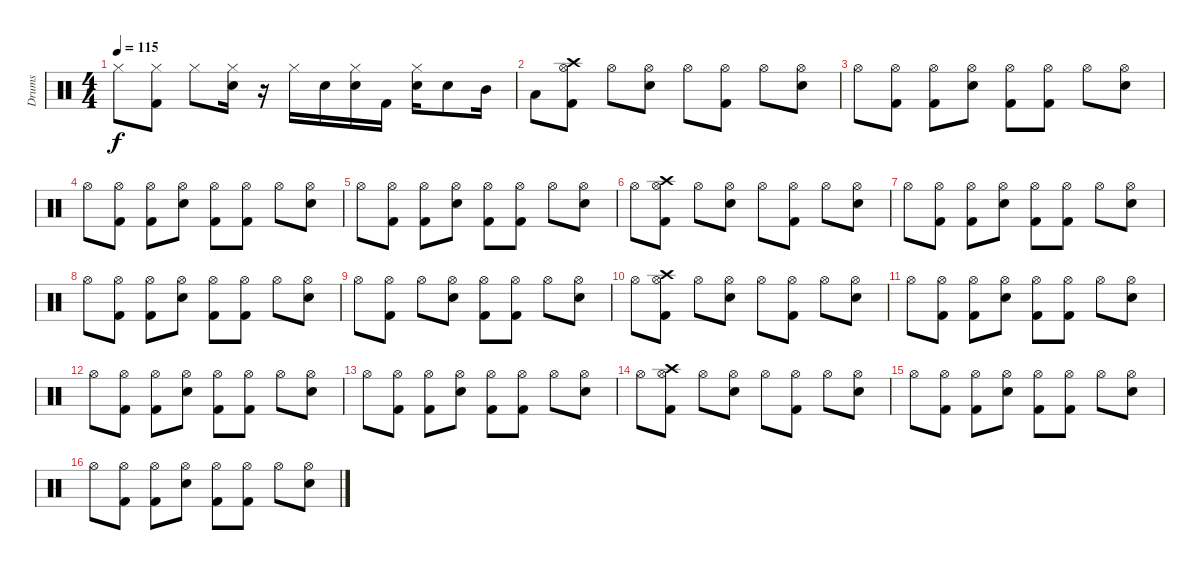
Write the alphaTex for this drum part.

\track ("Drums" "Drums") {instrument percussion}
\staff {score}
\articulation defaults
\ts (4 4)
\tempo 115
\clef neutral
\ks c "Hi-Hat (closed)".8{dy f}
("Kick (hit) 2" "Hi-Hat (closed)").8 "Hi-Hat (closed)".8 ("Snare (hit) 2" "Hi-Hat (closed)").16 r.16 "Hi-Hat (closed)".16 "Snare (hit) 2".16 ("Snare (hit) 2" "Hi-Hat (closed)").16 "Kick (hit) 2".16 ("Snare (hit) 2" "Hi-Hat (closed)").16 "Snare (hit) 2".8 "Mid Tom (hit)".16 |
"Low Tom (hit)".8 ("Kick (hit) 2" "Hi-Hat (open)" "Crash high (hit)").8 "Hi-Hat (open)".8 ("Snare (hit) 2" "Hi-Hat (open)").8 "Hi-Hat (open)".8 ("Kick (hit) 2" "Hi-Hat (open)").8 "Hi-Hat (open)".8 ("Snare (hit) 2" "Hi-Hat (open)").8 |
"Hi-Hat (open)".8 ("Kick (hit) 2" "Hi-Hat (open)").8 ("Kick (hit) 2" "Hi-Hat (open)").8 ("Snare (hit) 2" "Hi-Hat (open)").8 ("Kick (hit) 2" "Hi-Hat (open)").8 ("Kick (hit) 2" "Hi-Hat (open)").8 "Hi-Hat (open)".8 ("Snare (hit) 2" "Hi-Hat (open)").8 |
"Hi-Hat (open)".8 ("Kick (hit) 2" "Hi-Hat (open)").8 ("Kick (hit) 2" "Hi-Hat (open)").8 ("Snare (hit) 2" "Hi-Hat (open)").8 ("Kick (hit) 2" "Hi-Hat (open)").8 ("Kick (hit) 2" "Hi-Hat (open)").8 "Hi-Hat (open)".8 ("Snare (hit) 2" "Hi-Hat (open)").8 |
"Hi-Hat (open)".8 ("Kick (hit) 2" "Hi-Hat (open)").8 ("Kick (hit) 2" "Hi-Hat (open)").8 ("Snare (hit) 2" "Hi-Hat (open)").8 ("Kick (hit) 2" "Hi-Hat (open)").8 ("Kick (hit) 2" "Hi-Hat (open)").8 "Hi-Hat (open)".8 ("Snare (hit) 2" "Hi-Hat (open)").8 |
"Hi-Hat (open)".8 ("Kick (hit) 2" "Hi-Hat (open)" "Crash high (hit)").8 "Hi-Hat (open)".8 ("Snare (hit) 2" "Hi-Hat (open)").8 "Hi-Hat (open)".8 ("Kick (hit) 2" "Hi-Hat (open)").8 "Hi-Hat (open)".8 ("Snare (hit) 2" "Hi-Hat (open)").8 |
"Hi-Hat (open)".8 ("Kick (hit) 2" "Hi-Hat (open)").8 ("Kick (hit) 2" "Hi-Hat (open)").8 ("Snare (hit) 2" "Hi-Hat (open)").8 ("Kick (hit) 2" "Hi-Hat (open)").8 ("Kick (hit) 2" "Hi-Hat (open)").8 "Hi-Hat (open)".8 ("Snare (hit) 2" "Hi-Hat (open)").8 |
"Hi-Hat (open)".8 ("Kick (hit) 2" "Hi-Hat (open)").8 ("Kick (hit) 2" "Hi-Hat (open)").8 ("Snare (hit) 2" "Hi-Hat (open)").8 ("Kick (hit) 2" "Hi-Hat (open)").8 ("Kick (hit) 2" "Hi-Hat (open)").8 "Hi-Hat (open)".8 ("Snare (hit) 2" "Hi-Hat (open)").8 |
"Hi-Hat (open)".8 ("Kick (hit) 2" "Hi-Hat (open)").8 "Hi-Hat (open)".8 ("Snare (hit) 2" "Hi-Hat (open)").8 ("Kick (hit) 2" "Hi-Hat (open)").8 ("Kick (hit) 2" "Hi-Hat (open)").8 "Hi-Hat (open)".8 ("Snare (hit) 2" "Hi-Hat (open)").8 |
"Hi-Hat (open)".8 ("Kick (hit) 2" "Hi-Hat (open)" "Crash high (hit)").8 "Hi-Hat (open)".8 ("Snare (hit) 2" "Hi-Hat (open)").8 "Hi-Hat (open)".8 ("Kick (hit) 2" "Hi-Hat (open)").8 "Hi-Hat (open)".8 ("Snare (hit) 2" "Hi-Hat (open)").8 |
"Hi-Hat (open)".8 ("Kick (hit) 2" "Hi-Hat (open)").8 ("Kick (hit) 2" "Hi-Hat (open)").8 ("Snare (hit) 2" "Hi-Hat (open)").8 ("Kick (hit) 2" "Hi-Hat (open)").8 ("Kick (hit) 2" "Hi-Hat (open)").8 "Hi-Hat (open)".8 ("Snare (hit) 2" "Hi-Hat (open)").8 |
"Hi-Hat (open)".8 ("Kick (hit) 2" "Hi-Hat (open)").8 ("Kick (hit) 2" "Hi-Hat (open)").8 ("Snare (hit) 2" "Hi-Hat (open)").8 ("Kick (hit) 2" "Hi-Hat (open)").8 ("Kick (hit) 2" "Hi-Hat (open)").8 "Hi-Hat (open)".8 ("Snare (hit) 2" "Hi-Hat (open)").8 |
"Hi-Hat (open)".8 ("Kick (hit) 2" "Hi-Hat (open)").8 ("Kick (hit) 2" "Hi-Hat (open)").8 ("Snare (hit) 2" "Hi-Hat (open)").8 ("Kick (hit) 2" "Hi-Hat (open)").8 ("Kick (hit) 2" "Hi-Hat (open)").8 "Hi-Hat (open)".8 ("Snare (hit) 2" "Hi-Hat (open)").8 |
"Hi-Hat (open)".8 ("Kick (hit) 2" "Hi-Hat (open)" "Crash high (hit)").8 "Hi-Hat (open)".8 ("Snare (hit) 2" "Hi-Hat (open)").8 "Hi-Hat (open)".8 ("Kick (hit) 2" "Hi-Hat (open)").8 "Hi-Hat (open)".8 ("Snare (hit) 2" "Hi-Hat (open)").8 |
"Hi-Hat (open)".8 ("Kick (hit) 2" "Hi-Hat (open)").8 ("Kick (hit) 2" "Hi-Hat (open)").8 ("Snare (hit) 2" "Hi-Hat (open)").8 ("Kick (hit) 2" "Hi-Hat (open)").8 ("Kick (hit) 2" "Hi-Hat (open)").8 "Hi-Hat (open)".8 ("Snare (hit) 2" "Hi-Hat (open)").8 |
"Hi-Hat (open)".8 ("Kick (hit) 2" "Hi-Hat (open)").8 ("Kick (hit) 2" "Hi-Hat (open)").8 ("Snare (hit) 2" "Hi-Hat (open)").8 ("Kick (hit) 2" "Hi-Hat (open)").8 ("Kick (hit) 2" "Hi-Hat (open)").8 "Hi-Hat (open)".8 ("Snare (hit) 2" "Hi-Hat (open)").8
